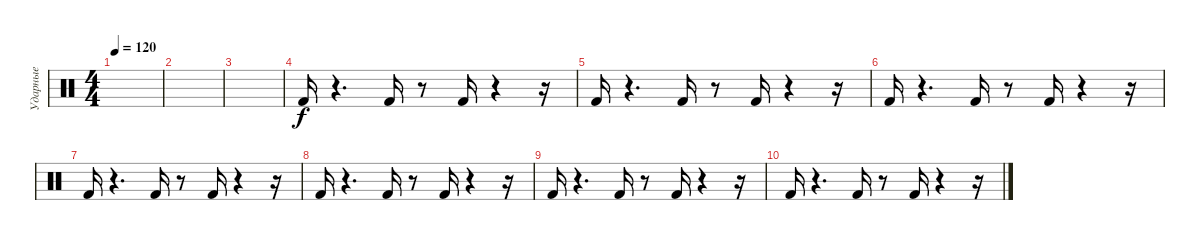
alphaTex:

\track ("Ударные" "Ударные") {instrument percussion}
\staff {score}
\articulation defaults
\ts (4 4)
\tempo 120
\clef neutral
\ks c
|
|
|
"Kick (hit) 2".16 r.4{d} "Kick (hit) 2".16 r.8 "Kick (hit) 2".16 r.4 r.16 |
"Kick (hit) 2".16 r.4{d} "Kick (hit) 2".16 r.8 "Kick (hit) 2".16 r.4 r.16 |
"Kick (hit) 2".16 r.4{d} "Kick (hit) 2".16 r.8 "Kick (hit) 2".16 r.4 r.16 |
"Kick (hit) 2".16 r.4{d} "Kick (hit) 2".16 r.8 "Kick (hit) 2".16 r.4 r.16 |
"Kick (hit) 2".16 r.4{d} "Kick (hit) 2".16 r.8 "Kick (hit) 2".16 r.4 r.16 |
"Kick (hit) 2".16 r.4{d} "Kick (hit) 2".16 r.8 "Kick (hit) 2".16 r.4 r.16 |
"Kick (hit) 2".16 r.4{d} "Kick (hit) 2".16 r.8 "Kick (hit) 2".16 r.4 r.16
